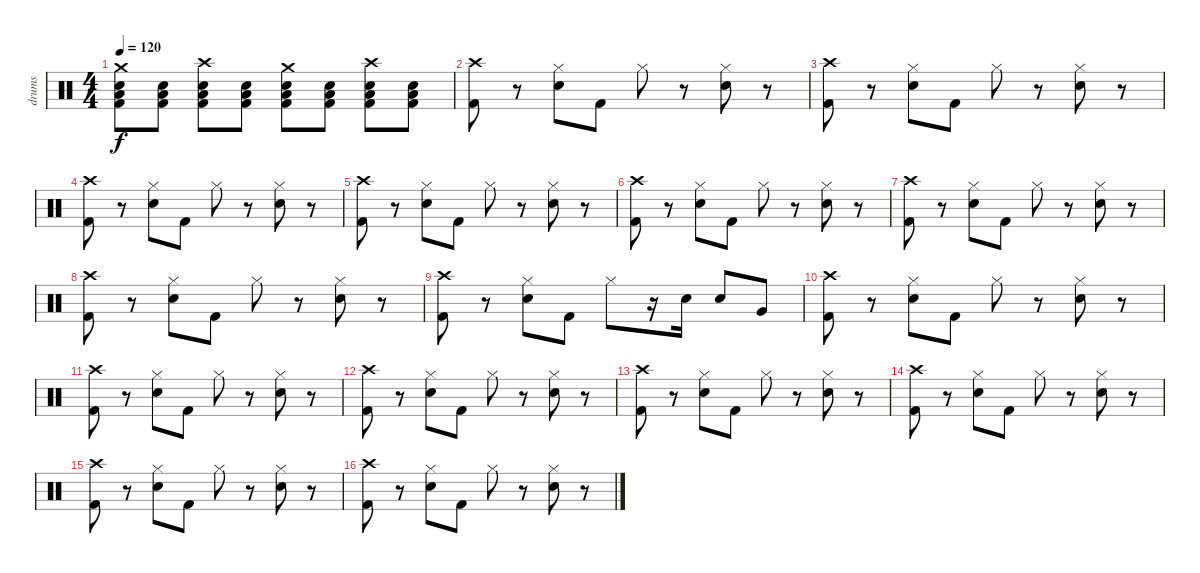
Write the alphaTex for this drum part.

\track ("drums" "drums") {instrument percussion}
\staff {score}
\articulation defaults
\ts (4 4)
\tempo 120
\clef neutral
\ks c
("Crash medium (hit)" "Snare (hit) 2" "Low Floor Tom (hit)" "Kick (hit) 2").8{dy f} ("Snare (hit) 2" "Low Floor Tom (hit)" "Kick (hit) 2").8 ("Crash high (hit)" "Snare (hit) 2" "Low Floor Tom (hit)" "Kick (hit) 2").8 ("Snare (hit) 2" "Low Floor Tom (hit)" "Kick (hit) 2").8 ("Crash medium (hit)" "Snare (hit) 2" "Low Floor Tom (hit)" "Kick (hit) 2").8 ("Snare (hit) 2" "Low Floor Tom (hit)" "Kick (hit) 2").8 ("Crash high (hit)" "Snare (hit) 2" "Low Floor Tom (hit)" "Kick (hit) 2").8 ("Snare (hit) 2" "Low Floor Tom (hit)" "Kick (hit) 2").8 |
("Crash high (hit)" "Kick (hit) 2").8 r.8 ("Hi-Hat (closed)" "Snare (hit) 2").8 "Kick (hit) 2".8 "Hi-Hat (closed)".8 r.8 ("Hi-Hat (closed)" "Snare (hit) 2").8 r.8 |
("Crash high (hit)" "Kick (hit) 2").8 r.8 ("Hi-Hat (closed)" "Snare (hit) 2").8 "Kick (hit) 2".8 "Hi-Hat (closed)".8 r.8 ("Hi-Hat (closed)" "Snare (hit) 2").8 r.8 |
("Crash high (hit)" "Kick (hit) 2").8 r.8 ("Hi-Hat (closed)" "Snare (hit) 2").8 "Kick (hit) 2".8 "Hi-Hat (closed)".8 r.8 ("Hi-Hat (closed)" "Snare (hit) 2").8 r.8 |
("Crash high (hit)" "Kick (hit) 2").8 r.8 ("Hi-Hat (closed)" "Snare (hit) 2").8 "Kick (hit) 2".8 "Hi-Hat (closed)".8 r.8 ("Hi-Hat (closed)" "Snare (hit) 2").8 r.8 |
("Crash high (hit)" "Kick (hit) 2").8 r.8 ("Hi-Hat (closed)" "Snare (hit) 2").8 "Kick (hit) 2".8 "Hi-Hat (closed)".8 r.8 ("Hi-Hat (closed)" "Snare (hit) 2").8 r.8 |
("Crash high (hit)" "Kick (hit) 2").8 r.8 ("Hi-Hat (closed)" "Snare (hit) 2").8 "Kick (hit) 2".8 "Hi-Hat (closed)".8 r.8 ("Hi-Hat (closed)" "Snare (hit) 2").8 r.8 |
("Crash high (hit)" "Kick (hit) 2").8 r.8 ("Hi-Hat (closed)" "Snare (hit) 2").8 "Kick (hit) 2".8 "Hi-Hat (closed)".8 r.8 ("Hi-Hat (closed)" "Snare (hit) 2").8 r.8 |
("Crash high (hit)" "Kick (hit) 2").8 r.8 ("Hi-Hat (closed)" "Snare (hit) 2").8 "Kick (hit) 2".8 "Hi-Hat (closed)".8 r.16 "Snare (hit) 2".16 "Snare (hit) 2".8 "Very Low Tom (hit)".8 |
("Crash high (hit)" "Kick (hit) 2").8 r.8 ("Hi-Hat (closed)" "Snare (hit) 2").8 "Kick (hit) 2".8 "Hi-Hat (closed)".8 r.8 ("Hi-Hat (closed)" "Snare (hit) 2").8 r.8 |
("Crash high (hit)" "Kick (hit) 2").8 r.8 ("Hi-Hat (closed)" "Snare (hit) 2").8 "Kick (hit) 2".8 "Hi-Hat (closed)".8 r.8 ("Hi-Hat (closed)" "Snare (hit) 2").8 r.8 |
("Crash high (hit)" "Kick (hit) 2").8 r.8 ("Hi-Hat (closed)" "Snare (hit) 2").8 "Kick (hit) 2".8 "Hi-Hat (closed)".8 r.8 ("Hi-Hat (closed)" "Snare (hit) 2").8 r.8 |
("Crash high (hit)" "Kick (hit) 2").8 r.8 ("Hi-Hat (closed)" "Snare (hit) 2").8 "Kick (hit) 2".8 "Hi-Hat (closed)".8 r.8 ("Hi-Hat (closed)" "Snare (hit) 2").8 r.8 |
("Crash high (hit)" "Kick (hit) 2").8 r.8 ("Hi-Hat (closed)" "Snare (hit) 2").8 "Kick (hit) 2".8 "Hi-Hat (closed)".8 r.8 ("Hi-Hat (closed)" "Snare (hit) 2").8 r.8 |
("Crash high (hit)" "Kick (hit) 2").8 r.8 ("Hi-Hat (closed)" "Snare (hit) 2").8 "Kick (hit) 2".8 "Hi-Hat (closed)".8 r.8 ("Hi-Hat (closed)" "Snare (hit) 2").8 r.8 |
("Crash high (hit)" "Kick (hit) 2").8 r.8 ("Hi-Hat (closed)" "Snare (hit) 2").8 "Kick (hit) 2".8 "Hi-Hat (closed)".8 r.8 ("Hi-Hat (closed)" "Snare (hit) 2").8 r.8
